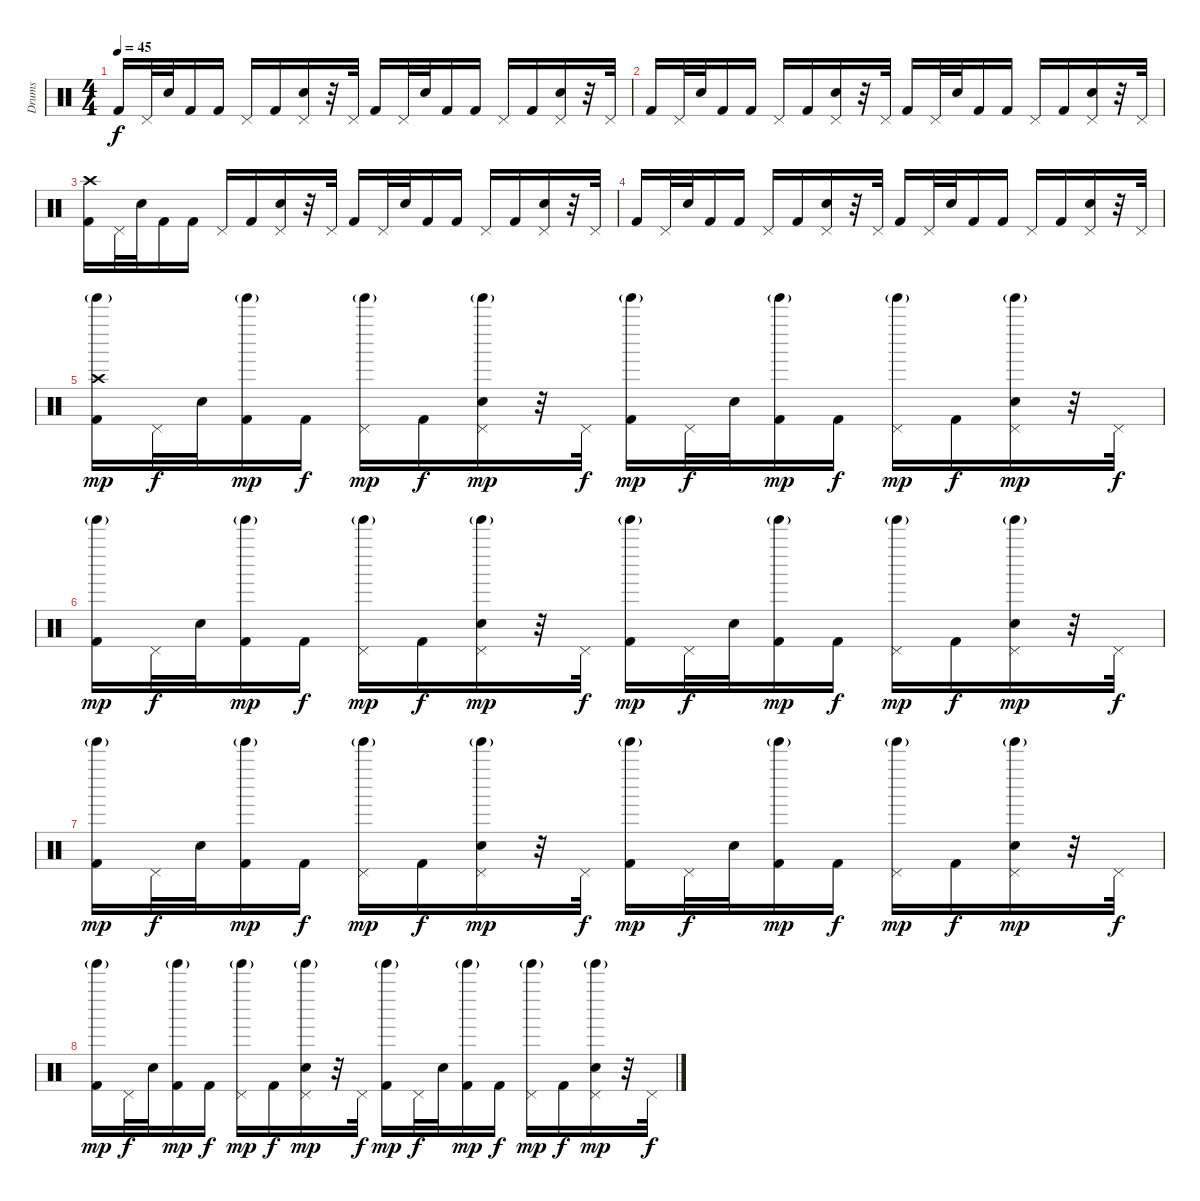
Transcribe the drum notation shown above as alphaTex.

\track ("Drums" "Drums") {instrument percussion}
\staff {score}
\articulation defaults
\ts (4 4)
\tempo 45
\clef neutral
\ks c "Kick (hit) 2".16{dy f} "Pedal Hi-Hat (hit)".32 "Hand Clap (hit)".32 "Kick (hit) 2".16 "Kick (hit) 2".16 "Pedal Hi-Hat (hit)".16 "Kick (hit) 2".16
("Pedal Hi-Hat (hit)" "Hand Clap (hit)").16 r.32 "Pedal Hi-Hat (hit)".32 "Kick (hit) 2".16 "Pedal Hi-Hat (hit)".32 "Hand Clap (hit)".32 "Kick (hit) 2".16 "Kick (hit) 2".16 "Pedal Hi-Hat (hit)".16 "Kick (hit) 2".16 ("Pedal Hi-Hat (hit)" "Hand Clap (hit)").16 r.32 "Pedal Hi-Hat (hit)".32 |
"Kick (hit) 2".16 "Pedal Hi-Hat (hit)".32 "Hand Clap (hit)".32 "Kick (hit) 2".16 "Kick (hit) 2".16 "Pedal Hi-Hat (hit)".16 "Kick (hit) 2".16 ("Pedal Hi-Hat (hit)" "Hand Clap (hit)").16 r.32 "Pedal Hi-Hat (hit)".32 "Kick (hit) 2".16 "Pedal Hi-Hat (hit)".32 "Hand Clap (hit)".32 "Kick (hit) 2".16 "Kick (hit) 2".16 "Pedal Hi-Hat (hit)".16 "Kick (hit) 2".16 ("Pedal Hi-Hat (hit)" "Hand Clap (hit)").16 r.32 "Pedal Hi-Hat (hit)".32 |
("Crash high (hit)" "Kick (hit) 2").16 "Pedal Hi-Hat (hit)".32 "Hand Clap (hit)".32 "Kick (hit) 2".16 "Kick (hit) 2".16 "Pedal Hi-Hat (hit)".16 "Kick (hit) 2".16 ("Pedal Hi-Hat (hit)" "Hand Clap (hit)").16 r.32 "Pedal Hi-Hat (hit)".32 "Kick (hit) 2".16 "Pedal Hi-Hat (hit)".32 "Hand Clap (hit)".32 "Kick (hit) 2".16 "Kick (hit) 2".16 "Pedal Hi-Hat (hit)".16 "Kick (hit) 2".16 ("Pedal Hi-Hat (hit)" "Hand Clap (hit)").16 r.32 "Pedal Hi-Hat (hit)".32 |
"Kick (hit) 2".16 "Pedal Hi-Hat (hit)".32 "Hand Clap (hit)".32 "Kick (hit) 2".16 "Kick (hit) 2".16 "Pedal Hi-Hat (hit)".16 "Kick (hit) 2".16 ("Pedal Hi-Hat (hit)" "Hand Clap (hit)").16 r.32 "Pedal Hi-Hat (hit)".32 "Kick (hit) 2".16 "Pedal Hi-Hat (hit)".32 "Hand Clap (hit)".32 "Kick (hit) 2".16 "Kick (hit) 2".16 "Pedal Hi-Hat (hit)".16 "Kick (hit) 2".16 ("Pedal Hi-Hat (hit)" "Hand Clap (hit)").16 r.32 "Pedal Hi-Hat (hit)".32 |
("Crash high (hit)" "Tinkle Bell (hit)"{g} "Kick (hit) 2").16{dy mp} "Pedal Hi-Hat (hit)".32{dy f} "Hand Clap (hit)".32 ("Tinkle Bell (hit)"{g} "Kick (hit) 2").16{dy mp} "Kick (hit) 2".16{dy f} ("Pedal Hi-Hat (hit)" "Tinkle Bell (hit)"{g}).16{dy mp} "Kick (hit) 2".16{dy f} ("Pedal Hi-Hat (hit)" "Hand Clap (hit)" "Tinkle Bell (hit)"{g}).16{dy mp} r.32 "Pedal Hi-Hat (hit)".32{dy f} ("Tinkle Bell (hit)"{g} "Kick (hit) 2").16{dy mp} "Pedal Hi-Hat (hit)".32{dy f} "Hand Clap (hit)".32 ("Tinkle Bell (hit)"{g} "Kick (hit) 2").16{dy mp} "Kick (hit) 2".16{dy f} ("Pedal Hi-Hat (hit)" "Tinkle Bell (hit)"{g}).16{dy mp} "Kick (hit) 2".16{dy f} ("Pedal Hi-Hat (hit)" "Hand Clap (hit)" "Tinkle Bell (hit)"{g}).16{dy mp} r.32 "Pedal Hi-Hat (hit)".32{dy f} |
("Tinkle Bell (hit)"{g} "Kick (hit) 2").16{dy mp} "Pedal Hi-Hat (hit)".32{dy f} "Hand Clap (hit)".32 ("Tinkle Bell (hit)"{g} "Kick (hit) 2").16{dy mp} "Kick (hit) 2".16{dy f} ("Pedal Hi-Hat (hit)" "Tinkle Bell (hit)"{g}).16{dy mp} "Kick (hit) 2".16{dy f} ("Pedal Hi-Hat (hit)" "Hand Clap (hit)" "Tinkle Bell (hit)"{g}).16{dy mp} r.32 "Pedal Hi-Hat (hit)".32{dy f} ("Tinkle Bell (hit)"{g} "Kick (hit) 2").16{dy mp} "Pedal Hi-Hat (hit)".32{dy f} "Hand Clap (hit)".32 ("Tinkle Bell (hit)"{g} "Kick (hit) 2").16{dy mp} "Kick (hit) 2".16{dy f} ("Pedal Hi-Hat (hit)" "Tinkle Bell (hit)"{g}).16{dy mp} "Kick (hit) 2".16{dy f} ("Pedal Hi-Hat (hit)" "Hand Clap (hit)" "Tinkle Bell (hit)"{g}).16{dy mp} r.32 "Pedal Hi-Hat (hit)".32{dy f} |
("Tinkle Bell (hit)"{g} "Kick (hit) 2").16{dy mp} "Pedal Hi-Hat (hit)".32{dy f} "Hand Clap (hit)".32 ("Tinkle Bell (hit)"{g} "Kick (hit) 2").16{dy mp} "Kick (hit) 2".16{dy f} ("Pedal Hi-Hat (hit)" "Tinkle Bell (hit)"{g}).16{dy mp} "Kick (hit) 2".16{dy f} ("Pedal Hi-Hat (hit)" "Hand Clap (hit)" "Tinkle Bell (hit)"{g}).16{dy mp} r.32 "Pedal Hi-Hat (hit)".32{dy f} ("Tinkle Bell (hit)"{g} "Kick (hit) 2").16{dy mp} "Pedal Hi-Hat (hit)".32{dy f} "Hand Clap (hit)".32 ("Tinkle Bell (hit)"{g} "Kick (hit) 2").16{dy mp} "Kick (hit) 2".16{dy f} ("Pedal Hi-Hat (hit)" "Tinkle Bell (hit)"{g}).16{dy mp} "Kick (hit) 2".16{dy f} ("Pedal Hi-Hat (hit)" "Hand Clap (hit)" "Tinkle Bell (hit)"{g}).16{dy mp} r.32 "Pedal Hi-Hat (hit)".32{dy f} |
("Tinkle Bell (hit)"{g} "Kick (hit) 2").16{dy mp} "Pedal Hi-Hat (hit)".32{dy f} "Hand Clap (hit)".32 ("Tinkle Bell (hit)"{g} "Kick (hit) 2").16{dy mp} "Kick (hit) 2".16{dy f} ("Pedal Hi-Hat (hit)" "Tinkle Bell (hit)"{g}).16{dy mp} "Kick (hit) 2".16{dy f} ("Pedal Hi-Hat (hit)" "Hand Clap (hit)" "Tinkle Bell (hit)"{g}).16{dy mp} r.32 "Pedal Hi-Hat (hit)".32{dy f} ("Tinkle Bell (hit)"{g} "Kick (hit) 2").16{dy mp} "Pedal Hi-Hat (hit)".32{dy f} "Hand Clap (hit)".32 ("Tinkle Bell (hit)"{g} "Kick (hit) 2").16{dy mp} "Kick (hit) 2".16{dy f} ("Pedal Hi-Hat (hit)" "Tinkle Bell (hit)"{g}).16{dy mp} "Kick (hit) 2".16{dy f} ("Pedal Hi-Hat (hit)" "Hand Clap (hit)" "Tinkle Bell (hit)"{g}).16{dy mp} r.32 "Pedal Hi-Hat (hit)".32{dy f}
